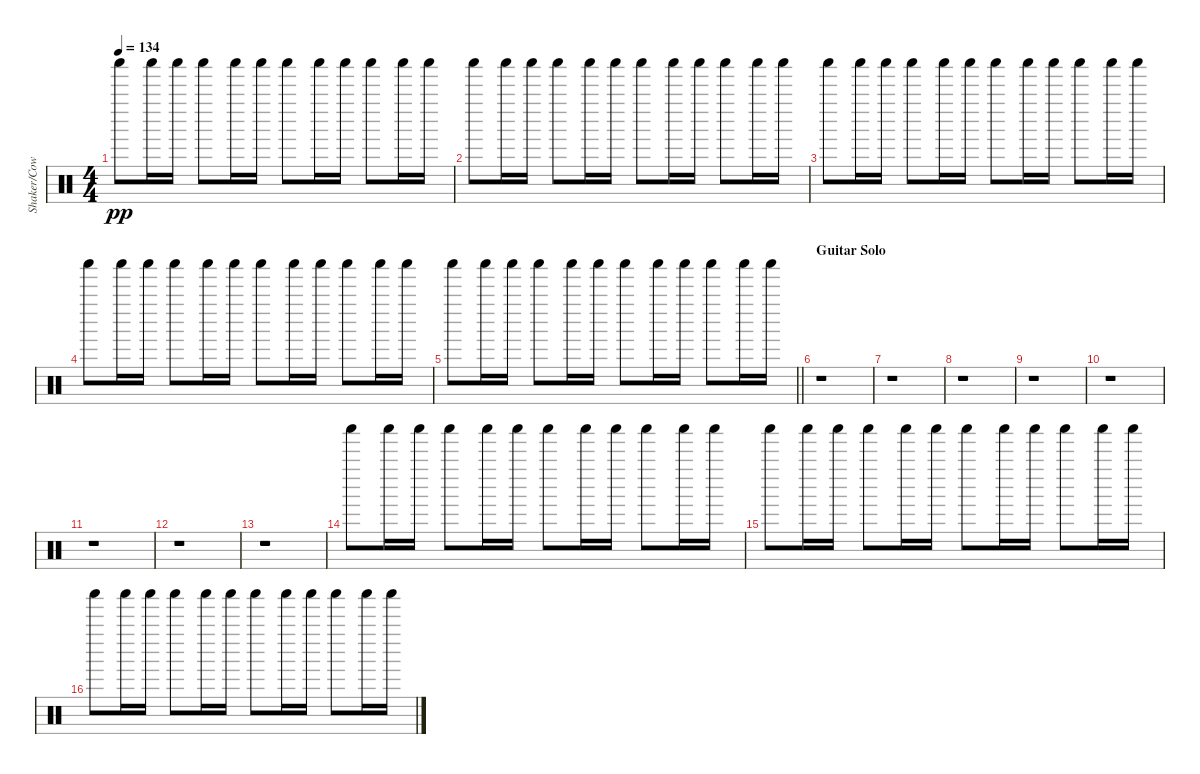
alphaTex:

\track ("Shaker/Cowbell" "Shaker/Cow") {instrument percussion}
\staff {score}
\articulation defaults
\ts (4 4)
\tempo 134
\clef neutral
\ks c "Shaker (hit)".8{dy pp} "Shaker (hit)".16 "Shaker (hit)".16 "Shaker (hit)".8 "Shaker (hit)".16 "Shaker (hit)".16 "Shaker (hit)".8 "Shaker (hit)".16 "Shaker (hit)".16 "Shaker (hit)".8 "Shaker (hit)".16 "Shaker (hit)".16
|
"Shaker (hit)".8 "Shaker (hit)".16 "Shaker (hit)".16 "Shaker (hit)".8 "Shaker (hit)".16 "Shaker (hit)".16 "Shaker (hit)".8 "Shaker (hit)".16 "Shaker (hit)".16 "Shaker (hit)".8 "Shaker (hit)".16 "Shaker (hit)".16 |
"Shaker (hit)".8 "Shaker (hit)".16 "Shaker (hit)".16 "Shaker (hit)".8 "Shaker (hit)".16 "Shaker (hit)".16 "Shaker (hit)".8 "Shaker (hit)".16 "Shaker (hit)".16 "Shaker (hit)".8 "Shaker (hit)".16 "Shaker (hit)".16 |
"Shaker (hit)".8 "Shaker (hit)".16 "Shaker (hit)".16 "Shaker (hit)".8 "Shaker (hit)".16 "Shaker (hit)".16 "Shaker (hit)".8 "Shaker (hit)".16 "Shaker (hit)".16 "Shaker (hit)".8 "Shaker (hit)".16 "Shaker (hit)".16 |
\barLineRight lightlight "Shaker (hit)".8 "Shaker (hit)".16 "Shaker (hit)".16 "Shaker (hit)".8 "Shaker (hit)".16 "Shaker (hit)".16 "Shaker (hit)".8 "Shaker (hit)".16 "Shaker (hit)".16 "Shaker (hit)".8 "Shaker (hit)".16 "Shaker (hit)".16
|
\section ("" "Guitar Solo")
r.1 |
r.1 |
r.1 |
r.1 |
r.1 |
r.1 |
r.1 |
r.1 |
"Shaker (hit)".8 "Shaker (hit)".16 "Shaker (hit)".16 "Shaker (hit)".8 "Shaker (hit)".16 "Shaker (hit)".16 "Shaker (hit)".8 "Shaker (hit)".16 "Shaker (hit)".16 "Shaker (hit)".8 "Shaker (hit)".16 "Shaker (hit)".16 |
"Shaker (hit)".8 "Shaker (hit)".16 "Shaker (hit)".16 "Shaker (hit)".8 "Shaker (hit)".16 "Shaker (hit)".16 "Shaker (hit)".8 "Shaker (hit)".16 "Shaker (hit)".16 "Shaker (hit)".8 "Shaker (hit)".16 "Shaker (hit)".16 |
"Shaker (hit)".8 "Shaker (hit)".16 "Shaker (hit)".16 "Shaker (hit)".8 "Shaker (hit)".16 "Shaker (hit)".16 "Shaker (hit)".8 "Shaker (hit)".16 "Shaker (hit)".16 "Shaker (hit)".8 "Shaker (hit)".16 "Shaker (hit)".16
